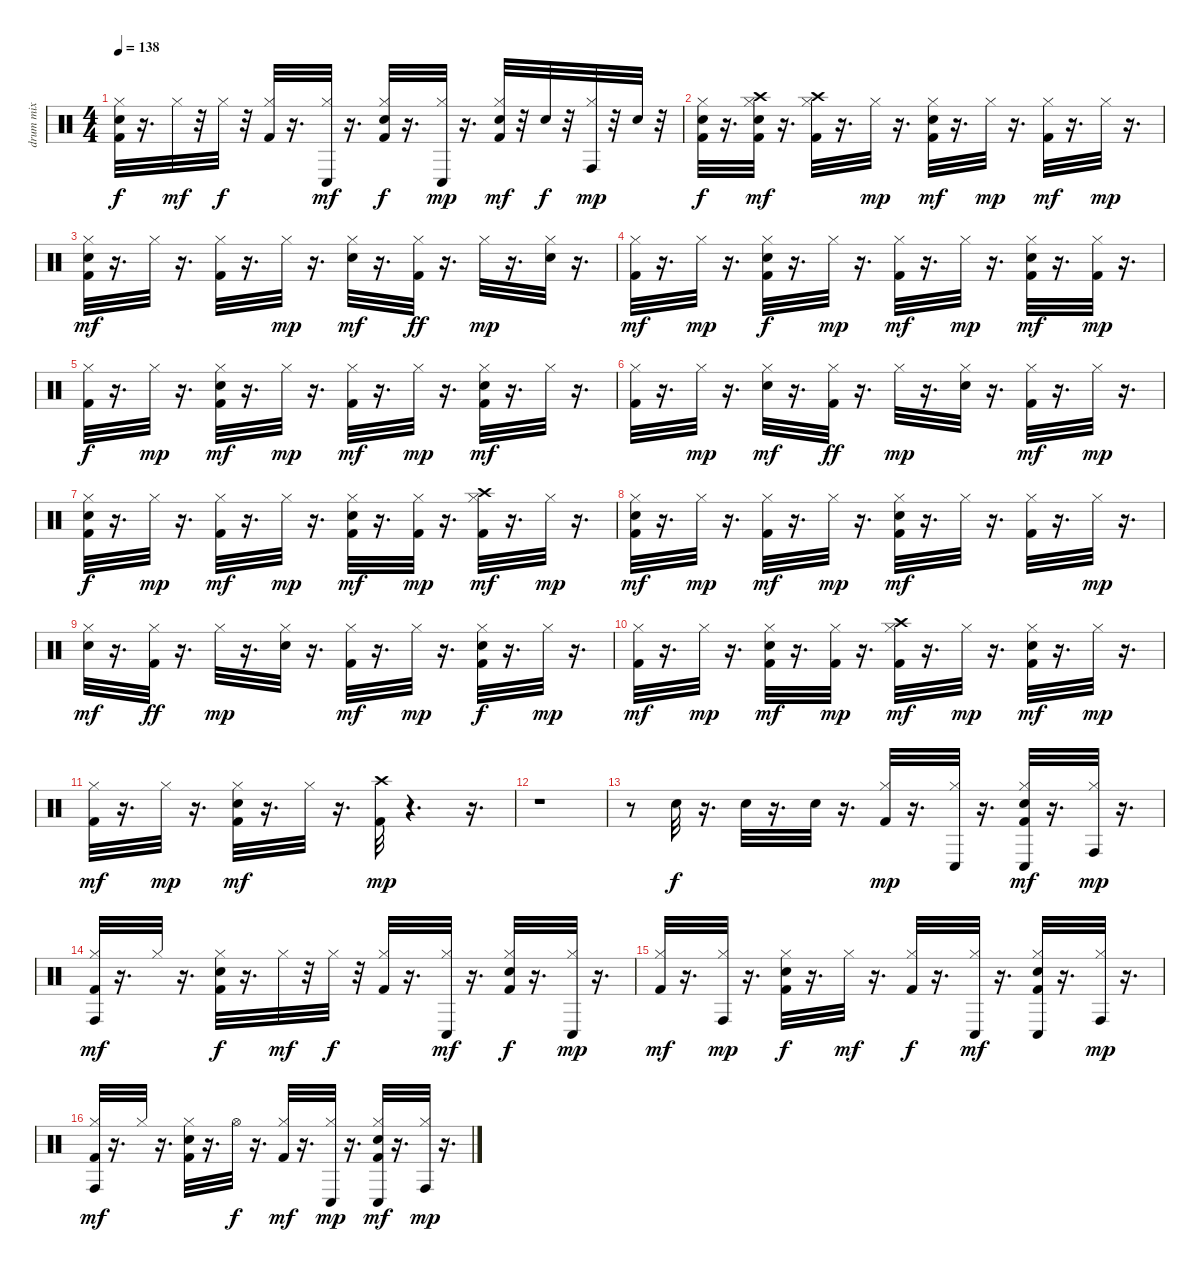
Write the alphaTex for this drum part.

\track ("drum mix" "drum mix") {instrument percussion}
\staff {score}
\articulation defaults
\ts (4 4)
\tempo 138
\clef neutral
\ks c
("Snare (hit) 2" "Hi-Hat (closed)" "Kick (hit) 2").32{dy f} r.16{d} "Hi-Hat (closed)".32{dy mf} r.32 "Hi-Hat (closed)".32{dy f} r.32 ("Hi-Hat (closed)" "Kick (hit) 2").32 r.16{d} ("Hi-Hat (closed)" "Conga low (hit)").32{dy mf} r.16{d} ("Snare (hit) 2" "Hi-Hat (closed)" "Kick (hit) 2").32{dy f} r.16{d} ("Hi-Hat (closed)" "Conga low (hit)").32{dy mp} r.16{d} ("Snare (hit) 2" "Hi-Hat (closed)" "Kick (hit) 2").32{dy mf} r.32 "Snare (hit) 2".32{dy f} r.32 ("Hi-Hat (closed)" "Conga high (hit)").32{dy mp} r.32 "Snare (hit) 2".32 r.32 |
("Snare (hit) 2" "Hi-Hat (closed)" "Kick (hit) 2").32{dy f} r.16{d} ("Snare (hit) 2" "Hi-Hat (closed)" "Crash high (hit)" "Kick (hit) 2").32{dy mf} r.16{d} ("Hi-Hat (closed)" "Crash high (hit)" "Kick (hit) 2").32 r.16{d} "Hi-Hat (closed)".32{dy mp} r.16{d} ("Snare (hit) 2" "Hi-Hat (closed)" "Kick (hit) 2").32{dy mf} r.16{d} "Hi-Hat (closed)".32{dy mp} r.16{d} ("Hi-Hat (closed)" "Kick (hit) 2").32{dy mf} r.16{d} "Hi-Hat (closed)".32{dy mp} r.16{d} |
("Snare (hit) 2" "Hi-Hat (closed)" "Kick (hit) 2").32{dy mf} r.16{d} "Hi-Hat (closed)".32 r.16{d} ("Hi-Hat (closed)" "Kick (hit) 2").32 r.16{d} "Hi-Hat (closed)".32{dy mp} r.16{d} ("Snare (hit) 2" "Hi-Hat (closed)").32{dy mf} r.16{d} ("Hi-Hat (closed)" "Kick (hit) 2").32{dy ff} r.16{d} "Hi-Hat (closed)".32{dy mp} r.16{d} ("Snare (hit) 2" "Hi-Hat (closed)").32 r.16{d} |
("Hi-Hat (closed)" "Kick (hit) 2").32{dy mf} r.16{d} "Hi-Hat (closed)".32{dy mp} r.16{d} ("Snare (hit) 2" "Hi-Hat (closed)" "Kick (hit) 2").32{dy f} r.16{d} "Hi-Hat (closed)".32{dy mp} r.16{d} ("Hi-Hat (closed)" "Kick (hit) 2").32{dy mf} r.16{d} "Hi-Hat (closed)".32{dy mp} r.16{d} ("Snare (hit) 2" "Hi-Hat (closed)" "Kick (hit) 2").32{dy mf} r.16{d} ("Hi-Hat (closed)" "Kick (hit) 2").32{dy mp} r.16{d} |
("Hi-Hat (closed)" "Kick (hit) 2").32{dy f} r.16{d} "Hi-Hat (closed)".32{dy mp} r.16{d} ("Snare (hit) 2" "Hi-Hat (closed)" "Kick (hit) 2").32{dy mf} r.16{d} "Hi-Hat (closed)".32{dy mp} r.16{d} ("Hi-Hat (closed)" "Kick (hit) 2").32{dy mf} r.16{d} "Hi-Hat (closed)".32{dy mp} r.16{d} ("Snare (hit) 2" "Hi-Hat (closed)" "Kick (hit) 2").32{dy mf} r.16{d} "Hi-Hat (closed)".32 r.16{d} |
("Hi-Hat (closed)" "Kick (hit) 2").32 r.16{d} "Hi-Hat (closed)".32{dy mp} r.16{d} ("Snare (hit) 2" "Hi-Hat (closed)").32{dy mf} r.16{d} ("Hi-Hat (closed)" "Kick (hit) 2").32{dy ff} r.16{d} "Hi-Hat (closed)".32{dy mp} r.16{d} ("Snare (hit) 2" "Hi-Hat (closed)").32 r.16{d} ("Hi-Hat (closed)" "Kick (hit) 2").32{dy mf} r.16{d} "Hi-Hat (closed)".32{dy mp} r.16{d} |
("Snare (hit) 2" "Hi-Hat (closed)" "Kick (hit) 2").32{dy f} r.16{d} "Hi-Hat (closed)".32{dy mp} r.16{d} ("Hi-Hat (closed)" "Kick (hit) 2").32{dy mf} r.16{d} "Hi-Hat (closed)".32{dy mp} r.16{d} ("Snare (hit) 2" "Hi-Hat (closed)" "Kick (hit) 2").32{dy mf} r.16{d} ("Hi-Hat (closed)" "Kick (hit) 2").32{dy mp} r.16{d} ("Hi-Hat (closed)" "Crash high (hit)" "Kick (hit) 2").32{dy mf} r.16{d} "Hi-Hat (closed)".32{dy mp} r.16{d} |
("Snare (hit) 2" "Hi-Hat (closed)" "Kick (hit) 2").32{dy mf} r.16{d} "Hi-Hat (closed)".32{dy mp} r.16{d} ("Hi-Hat (closed)" "Kick (hit) 2").32{dy mf} r.16{d} "Hi-Hat (closed)".32{dy mp} r.16{d} ("Snare (hit) 2" "Hi-Hat (closed)" "Kick (hit) 2").32{dy mf} r.16{d} "Hi-Hat (closed)".32 r.16{d} ("Hi-Hat (closed)" "Kick (hit) 2").32 r.16{d} "Hi-Hat (closed)".32{dy mp} r.16{d} |
("Snare (hit) 2" "Hi-Hat (closed)").32{dy mf} r.16{d} ("Hi-Hat (closed)" "Kick (hit) 2").32{dy ff} r.16{d} "Hi-Hat (closed)".32{dy mp} r.16{d} ("Snare (hit) 2" "Hi-Hat (closed)").32 r.16{d} ("Hi-Hat (closed)" "Kick (hit) 2").32{dy mf} r.16{d} "Hi-Hat (closed)".32{dy mp} r.16{d} ("Snare (hit) 2" "Hi-Hat (closed)" "Kick (hit) 2").32{dy f} r.16{d} "Hi-Hat (closed)".32{dy mp} r.16{d} |
("Hi-Hat (closed)" "Kick (hit) 2").32{dy mf} r.16{d} "Hi-Hat (closed)".32{dy mp} r.16{d} ("Snare (hit) 2" "Hi-Hat (closed)" "Kick (hit) 2").32{dy mf} r.16{d} ("Hi-Hat (closed)" "Kick (hit) 2").32{dy mp} r.16{d} ("Hi-Hat (closed)" "Crash high (hit)" "Kick (hit) 2").32{dy mf} r.16{d} "Hi-Hat (closed)".32{dy mp} r.16{d} ("Snare (hit) 2" "Hi-Hat (closed)" "Kick (hit) 2").32{dy mf} r.16{d} "Hi-Hat (closed)".32{dy mp} r.16{d} |
("Hi-Hat (closed)" "Kick (hit) 2").32{dy mf} r.16{d} "Hi-Hat (closed)".32{dy mp} r.16{d} ("Snare (hit) 2" "Hi-Hat (closed)" "Kick (hit) 2").32{dy mf} r.16{d} "Hi-Hat (closed)".32 r.16{d} ("Crash high (hit)" "Kick (hit) 2").32{dy mp} r.4{d} r.16{d} |
r.1 |
r.8 "Snare (hit) 2".32{dy f} r.16{d} "Snare (hit) 2".32 r.16{d} "Snare (hit) 2".32 r.16{d} ("Hi-Hat (closed)" "Kick (hit) 2").32{dy mp} r.16{d} ("Hi-Hat (closed)" "Conga low (hit)").32 r.16{d} ("Snare (hit) 2" "Hi-Hat (closed)" "Conga low (hit)" "Kick (hit) 2").32{dy mf} r.16{d} ("Hi-Hat (closed)" "Conga high (hit)").32{dy mp} r.16{d} |
("Hi-Hat (closed)" "Conga high (hit)" "Kick (hit) 2").32{dy mf} r.16{d} "Hi-Hat (closed)".32 r.16{d} ("Snare (hit) 2" "Hi-Hat (closed)" "Kick (hit) 2").32{dy f} r.16{d} "Hi-Hat (closed)".32{dy mf} r.32 "Hi-Hat (closed)".32{dy f} r.32 ("Hi-Hat (closed)" "Kick (hit) 2").32 r.16{d} ("Hi-Hat (closed)" "Conga low (hit)").32{dy mf} r.16{d} ("Snare (hit) 2" "Hi-Hat (closed)" "Kick (hit) 2").32{dy f} r.16{d} ("Hi-Hat (closed)" "Conga low (hit)").32{dy mp} r.16{d} |
("Hi-Hat (closed)" "Kick (hit) 2").32{dy mf} r.16{d} ("Hi-Hat (closed)" "Conga high (hit)").32{dy mp} r.16{d} ("Snare (hit) 2" "Hi-Hat (closed)" "Kick (hit) 2").32{dy f} r.16{d} "Hi-Hat (closed)".32{dy mf} r.16{d} ("Hi-Hat (closed)" "Kick (hit) 2").32{dy f} r.16{d} ("Hi-Hat (closed)" "Conga low (hit)").32{dy mf} r.16{d} ("Snare (hit) 2" "Hi-Hat (closed)" "Conga low (hit)" "Kick (hit) 2").32 r.16{d} ("Hi-Hat (closed)" "Conga high (hit)").32{dy mp} r.16{d} |
("Hi-Hat (closed)" "Conga high (hit)" "Kick (hit) 2").32{dy mf} r.16{d} "Hi-Hat (closed)".32 r.16{d} ("Snare (hit) 2" "Hi-Hat (closed)" "Kick (hit) 2").32 r.16{d} "Hi-Hat (open)".32{dy f} r.16{d} ("Hi-Hat (closed)" "Kick (hit) 2").32{dy mf} r.16{d} ("Hi-Hat (closed)" "Conga low (hit)").32{dy mp} r.16{d} ("Snare (hit) 2" "Hi-Hat (closed)" "Conga low (hit)" "Kick (hit) 2").32{dy mf} r.16{d} ("Hi-Hat (closed)" "Conga high (hit)").32{dy mp} r.16{d}
